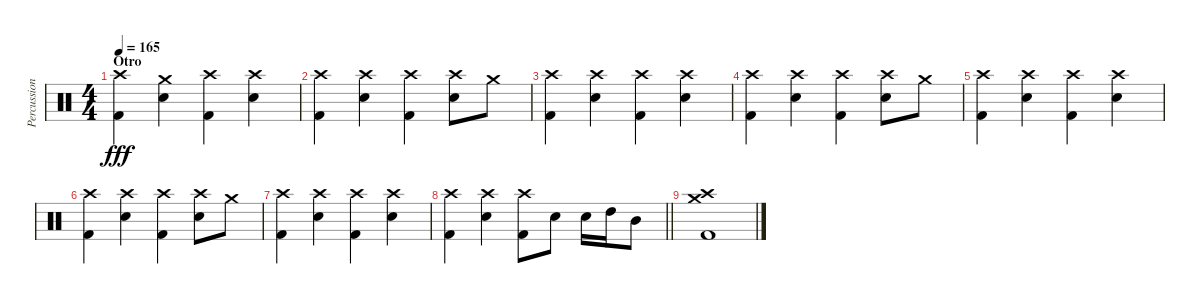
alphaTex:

\track ("Percussion" "Percussion") {instrument percussion}
\staff {score}
\articulation defaults
\ts (4 4)
\section ("" "Otro")
\tempo 165
\clef neutral
\ks c
("Crash high (hit)" "Kick (hit) 2").4{dy fff} ("Crash medium (hit)" "Electric Snare (hit)").4 ("Crash high (hit)" "Kick (hit) 2").4 ("Crash high (hit)" "Electric Snare (hit)").4 |
("Crash high (hit)" "Kick (hit) 2").4 ("Crash high (hit)" "Electric Snare (hit)").4 ("Crash high (hit)" "Kick (hit) 2").4 ("Crash high (hit)" "Electric Snare (hit)").8 "Crash medium (hit)".8 |
("Crash high (hit)" "Kick (hit) 2").4 ("Crash high (hit)" "Electric Snare (hit)").4 ("Crash high (hit)" "Kick (hit) 2").4 ("Crash high (hit)" "Electric Snare (hit)").4 |
("Crash high (hit)" "Kick (hit) 2").4 ("Crash high (hit)" "Electric Snare (hit)").4 ("Crash high (hit)" "Kick (hit) 2").4 ("Crash high (hit)" "Electric Snare (hit)").8 "Crash medium (hit)".8 |
("Crash high (hit)" "Kick (hit) 2").4 ("Crash high (hit)" "Electric Snare (hit)").4 ("Crash high (hit)" "Kick (hit) 2").4 ("Crash high (hit)" "Electric Snare (hit)").4 |
("Crash high (hit)" "Kick (hit) 2").4 ("Crash high (hit)" "Electric Snare (hit)").4 ("Crash high (hit)" "Kick (hit) 2").4 ("Crash high (hit)" "Electric Snare (hit)").8 "Crash medium (hit)".8 |
("Crash high (hit)" "Kick (hit) 2").4 ("Crash high (hit)" "Electric Snare (hit)").4 ("Crash high (hit)" "Kick (hit) 2").4 ("Crash high (hit)" "Electric Snare (hit)").4 |
\barLineRight lightlight
("Crash high (hit)" "Kick (hit) 2").4 ("Crash high (hit)" "Electric Snare (hit)").4 ("Crash high (hit)" "Kick (hit) 2").8 "Electric Snare (hit)".8 "Electric Snare (hit)".16 "High Tom (hit)".16 "Mid Tom (hit)".8 |
("Crash high (hit)" "Crash medium (hit)" "Kick (hit) 2").1
